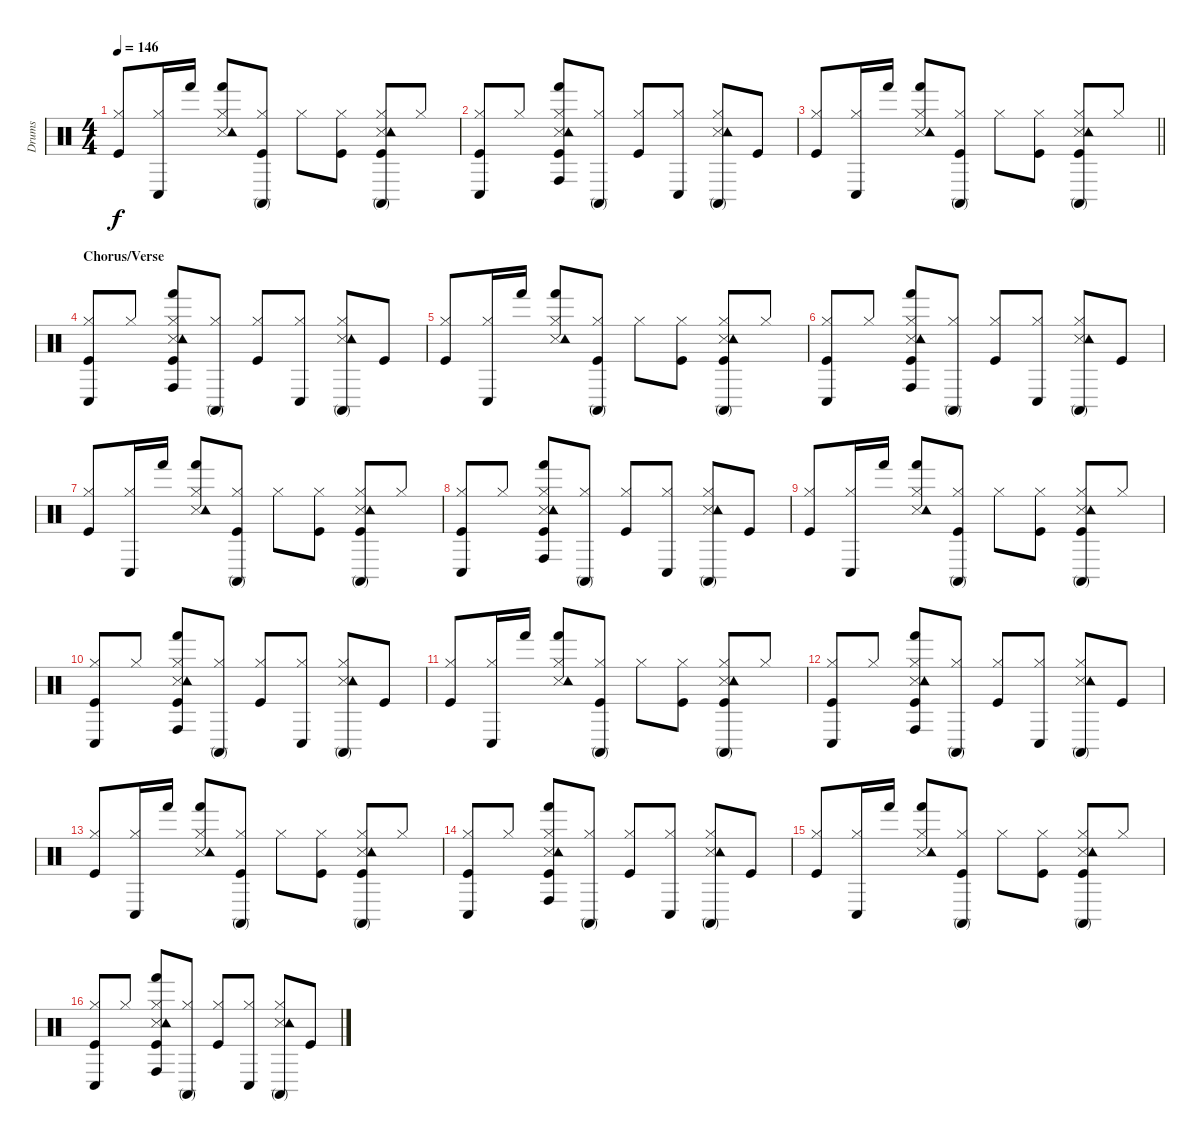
\track ("Drums" "Drums") {instrument percussion}
\staff {score}
\articulation defaults
\ts (4 4)
\tempo 146
\clef neutral
\ks c
("Kick (hit)" "Hi-Hat (closed)").8{dy f} ("Hi-Hat (closed)" "Conga low (hit)").16 "Hand (hit)".16 ("Snare (side stick) 3" "Hi-Hat (closed)" "Tambourine (hit)" "Hand (hit)").8 ("Kick (hit)" "Hi-Hat (closed)" "Conga high (mute)").8 "Hi-Hat (closed)".8 ("Kick (hit)" "Hi-Hat (closed)").8 ("Kick (hit)" "Snare (side stick) 3" "Hi-Hat (closed)" "Tambourine (hit)" "Conga high (mute)").8 "Hi-Hat (closed)".8 |
("Kick (hit)" "Hi-Hat (closed)" "Conga low (hit)").8 "Hi-Hat (closed)".8 ("Kick (hit)" "Snare (side stick) 3" "Hi-Hat (closed)" "Tambourine (hit)" "Hand (hit)" "Conga high (hit)").8 ("Hi-Hat (closed)" "Conga high (mute)").8 ("Kick (hit)" "Hi-Hat (closed)").8 ("Hi-Hat (closed)" "Conga low (hit)").8 ("Snare (side stick) 3" "Hi-Hat (closed)" "Tambourine (hit)" "Conga high (mute)").8 "Kick (hit)".8 |
\barLineRight lightlight
("Kick (hit)" "Hi-Hat (closed)").8 ("Hi-Hat (closed)" "Conga low (hit)").16 "Hand (hit)".16 ("Snare (side stick) 3" "Hi-Hat (closed)" "Tambourine (hit)" "Hand (hit)").8 ("Kick (hit)" "Hi-Hat (closed)" "Conga high (mute)").8 "Hi-Hat (closed)".8 ("Kick (hit)" "Hi-Hat (closed)").8 ("Kick (hit)" "Snare (side stick) 3" "Hi-Hat (closed)" "Tambourine (hit)" "Conga high (mute)").8 "Hi-Hat (closed)".8 |
\section ("" "Chorus/Verse")
("Kick (hit)" "Hi-Hat (closed)" "Conga low (hit)").8 "Hi-Hat (closed)".8 ("Kick (hit)" "Snare (side stick) 3" "Hi-Hat (closed)" "Tambourine (hit)" "Hand (hit)" "Conga high (hit)").8 ("Hi-Hat (closed)" "Conga high (mute)").8 ("Kick (hit)" "Hi-Hat (closed)").8 ("Hi-Hat (closed)" "Conga low (hit)").8 ("Snare (side stick) 3" "Hi-Hat (closed)" "Tambourine (hit)" "Conga high (mute)").8 "Kick (hit)".8 |
("Kick (hit)" "Hi-Hat (closed)").8 ("Hi-Hat (closed)" "Conga low (hit)").16 "Hand (hit)".16 ("Snare (side stick) 3" "Hi-Hat (closed)" "Tambourine (hit)" "Hand (hit)").8 ("Kick (hit)" "Hi-Hat (closed)" "Conga high (mute)").8 "Hi-Hat (closed)".8 ("Kick (hit)" "Hi-Hat (closed)").8 ("Kick (hit)" "Snare (side stick) 3" "Hi-Hat (closed)" "Tambourine (hit)" "Conga high (mute)").8 "Hi-Hat (closed)".8 |
("Kick (hit)" "Hi-Hat (closed)" "Conga low (hit)").8 "Hi-Hat (closed)".8 ("Kick (hit)" "Snare (side stick) 3" "Hi-Hat (closed)" "Tambourine (hit)" "Hand (hit)" "Conga high (hit)").8 ("Hi-Hat (closed)" "Conga high (mute)").8 ("Kick (hit)" "Hi-Hat (closed)").8 ("Hi-Hat (closed)" "Conga low (hit)").8 ("Snare (side stick) 3" "Hi-Hat (closed)" "Tambourine (hit)" "Conga high (mute)").8 "Kick (hit)".8 |
("Kick (hit)" "Hi-Hat (closed)").8 ("Hi-Hat (closed)" "Conga low (hit)").16 "Hand (hit)".16 ("Snare (side stick) 3" "Hi-Hat (closed)" "Tambourine (hit)" "Hand (hit)").8 ("Kick (hit)" "Hi-Hat (closed)" "Conga high (mute)").8 "Hi-Hat (closed)".8 ("Kick (hit)" "Hi-Hat (closed)").8 ("Kick (hit)" "Snare (side stick) 3" "Hi-Hat (closed)" "Tambourine (hit)" "Conga high (mute)").8 "Hi-Hat (closed)".8 |
("Kick (hit)" "Hi-Hat (closed)" "Conga low (hit)").8 "Hi-Hat (closed)".8 ("Kick (hit)" "Snare (side stick) 3" "Hi-Hat (closed)" "Tambourine (hit)" "Hand (hit)" "Conga high (hit)").8 ("Hi-Hat (closed)" "Conga high (mute)").8 ("Kick (hit)" "Hi-Hat (closed)").8 ("Hi-Hat (closed)" "Conga low (hit)").8 ("Snare (side stick) 3" "Hi-Hat (closed)" "Tambourine (hit)" "Conga high (mute)").8 "Kick (hit)".8 |
("Kick (hit)" "Hi-Hat (closed)").8 ("Hi-Hat (closed)" "Conga low (hit)").16 "Hand (hit)".16 ("Snare (side stick) 3" "Hi-Hat (closed)" "Tambourine (hit)" "Hand (hit)").8 ("Kick (hit)" "Hi-Hat (closed)" "Conga high (mute)").8 "Hi-Hat (closed)".8 ("Kick (hit)" "Hi-Hat (closed)").8 ("Kick (hit)" "Snare (side stick) 3" "Hi-Hat (closed)" "Tambourine (hit)" "Conga high (mute)").8 "Hi-Hat (closed)".8 |
("Kick (hit)" "Hi-Hat (closed)" "Conga low (hit)").8 "Hi-Hat (closed)".8 ("Kick (hit)" "Snare (side stick) 3" "Hi-Hat (closed)" "Tambourine (hit)" "Hand (hit)" "Conga high (hit)").8 ("Hi-Hat (closed)" "Conga high (mute)").8 ("Kick (hit)" "Hi-Hat (closed)").8 ("Hi-Hat (closed)" "Conga low (hit)").8 ("Snare (side stick) 3" "Hi-Hat (closed)" "Tambourine (hit)" "Conga high (mute)").8 "Kick (hit)".8 |
("Kick (hit)" "Hi-Hat (closed)").8 ("Hi-Hat (closed)" "Conga low (hit)").16 "Hand (hit)".16 ("Snare (side stick) 3" "Hi-Hat (closed)" "Tambourine (hit)" "Hand (hit)").8 ("Kick (hit)" "Hi-Hat (closed)" "Conga high (mute)").8 "Hi-Hat (closed)".8 ("Kick (hit)" "Hi-Hat (closed)").8 ("Kick (hit)" "Snare (side stick) 3" "Hi-Hat (closed)" "Tambourine (hit)" "Conga high (mute)").8 "Hi-Hat (closed)".8 |
("Kick (hit)" "Hi-Hat (closed)" "Conga low (hit)").8 "Hi-Hat (closed)".8 ("Kick (hit)" "Snare (side stick) 3" "Hi-Hat (closed)" "Tambourine (hit)" "Hand (hit)" "Conga high (hit)").8 ("Hi-Hat (closed)" "Conga high (mute)").8 ("Kick (hit)" "Hi-Hat (closed)").8 ("Hi-Hat (closed)" "Conga low (hit)").8 ("Snare (side stick) 3" "Hi-Hat (closed)" "Tambourine (hit)" "Conga high (mute)").8 "Kick (hit)".8 |
("Kick (hit)" "Hi-Hat (closed)").8 ("Hi-Hat (closed)" "Conga low (hit)").16 "Hand (hit)".16 ("Snare (side stick) 3" "Hi-Hat (closed)" "Tambourine (hit)" "Hand (hit)").8 ("Kick (hit)" "Hi-Hat (closed)" "Conga high (mute)").8 "Hi-Hat (closed)".8 ("Kick (hit)" "Hi-Hat (closed)").8 ("Kick (hit)" "Snare (side stick) 3" "Hi-Hat (closed)" "Tambourine (hit)" "Conga high (mute)").8 "Hi-Hat (closed)".8 |
("Kick (hit)" "Hi-Hat (closed)" "Conga low (hit)").8 "Hi-Hat (closed)".8 ("Kick (hit)" "Snare (side stick) 3" "Hi-Hat (closed)" "Tambourine (hit)" "Hand (hit)" "Conga high (hit)").8 ("Hi-Hat (closed)" "Conga high (mute)").8 ("Kick (hit)" "Hi-Hat (closed)").8 ("Hi-Hat (closed)" "Conga low (hit)").8 ("Snare (side stick) 3" "Hi-Hat (closed)" "Tambourine (hit)" "Conga high (mute)").8 "Kick (hit)".8 |
("Kick (hit)" "Hi-Hat (closed)").8 ("Hi-Hat (closed)" "Conga low (hit)").16 "Hand (hit)".16 ("Snare (side stick) 3" "Hi-Hat (closed)" "Tambourine (hit)" "Hand (hit)").8 ("Kick (hit)" "Hi-Hat (closed)" "Conga high (mute)").8 "Hi-Hat (closed)".8 ("Kick (hit)" "Hi-Hat (closed)").8 ("Kick (hit)" "Snare (side stick) 3" "Hi-Hat (closed)" "Tambourine (hit)" "Conga high (mute)").8 "Hi-Hat (closed)".8 |
("Kick (hit)" "Hi-Hat (closed)" "Conga low (hit)").8 "Hi-Hat (closed)".8 ("Kick (hit)" "Snare (side stick) 3" "Hi-Hat (closed)" "Tambourine (hit)" "Hand (hit)" "Conga high (hit)").8 ("Hi-Hat (closed)" "Conga high (mute)").8 ("Kick (hit)" "Hi-Hat (closed)").8 ("Hi-Hat (closed)" "Conga low (hit)").8 ("Snare (side stick) 3" "Hi-Hat (closed)" "Tambourine (hit)" "Conga high (mute)").8 "Kick (hit)".8
